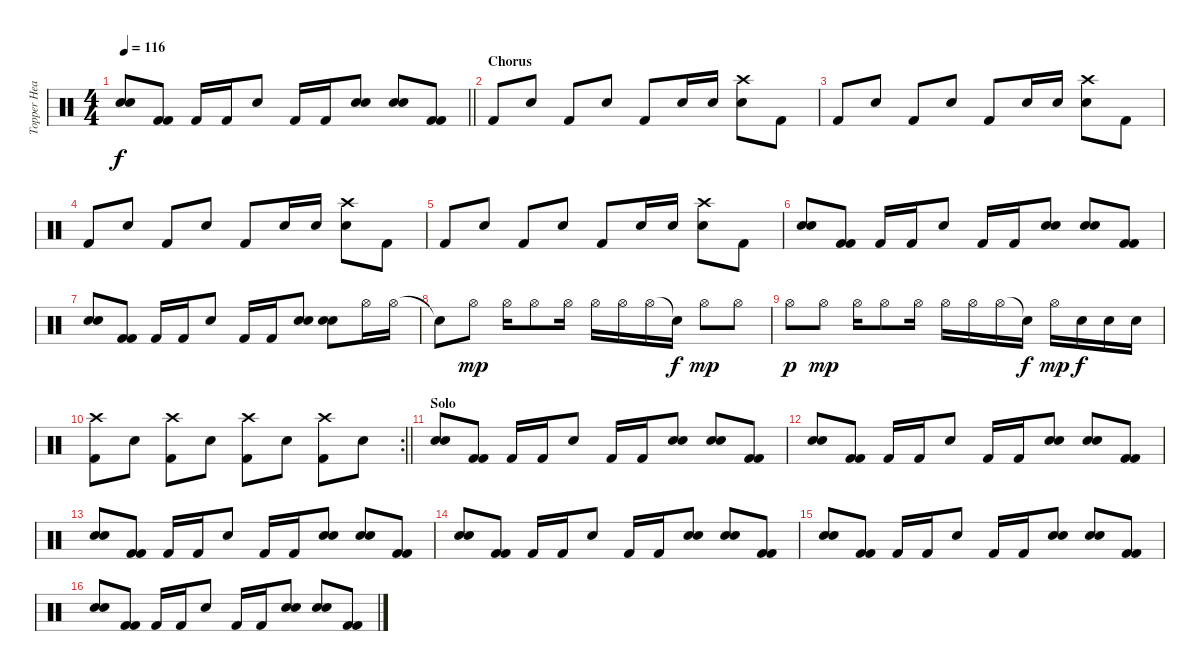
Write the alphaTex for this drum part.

\track ("Topper Headon - Percussion" "Topper Hea") {instrument percussion}
\staff {score}
\articulation defaults
\ts (4 4)
\tempo 116
\clef neutral
\barLineRight lightlight
\ks c
("Snare (hit) 2" "Snare (hit) 2").8{dy f} ("Kick (hit) 2" "Kick (hit) 2").8 "Kick (hit) 2".16 "Kick (hit) 2".16 "Snare (hit) 2".8 "Kick (hit) 2".16 "Kick (hit) 2".16 ("Snare (hit) 2" "Snare (hit) 2").8 ("Snare (hit) 2" "Snare (hit) 2").8 ("Kick (hit) 2" "Kick (hit) 2").8 |
\section ("" "Chorus")
"Kick (hit) 2".8 "Snare (hit) 2".8 "Kick (hit) 2".8 "Snare (hit) 2".8 "Kick (hit) 2".8 "Snare (hit) 2".16 "Snare (hit) 2".16 ("Crash high (hit)" "Snare (hit) 2").8 "Kick (hit) 2".8 |
"Kick (hit) 2".8 "Snare (hit) 2".8 "Kick (hit) 2".8 "Snare (hit) 2".8 "Kick (hit) 2".8 "Snare (hit) 2".16 "Snare (hit) 2".16 ("Crash high (hit)" "Snare (hit) 2").8 "Kick (hit) 2".8 |
"Kick (hit) 2".8 "Snare (hit) 2".8 "Kick (hit) 2".8 "Snare (hit) 2".8 "Kick (hit) 2".8 "Snare (hit) 2".16 "Snare (hit) 2".16 ("Crash high (hit)" "Snare (hit) 2").8 "Kick (hit) 2".8 |
"Kick (hit) 2".8 "Snare (hit) 2".8 "Kick (hit) 2".8 "Snare (hit) 2".8 "Kick (hit) 2".8 "Snare (hit) 2".16 "Snare (hit) 2".16 ("Crash high (hit)" "Snare (hit) 2").8 "Kick (hit) 2".8 |
("Snare (hit) 2" "Snare (hit) 2").8 ("Kick (hit) 2" "Kick (hit) 2").8 "Kick (hit) 2".16 "Kick (hit) 2".16 "Snare (hit) 2".8 "Kick (hit) 2".16 "Kick (hit) 2".16 ("Snare (hit) 2" "Snare (hit) 2").8 ("Snare (hit) 2" "Snare (hit) 2").8 ("Kick (hit) 2" "Kick (hit) 2").8 |
("Snare (hit) 2" "Snare (hit) 2").8 ("Kick (hit) 2" "Kick (hit) 2").8 "Kick (hit) 2".16 "Kick (hit) 2".16 "Snare (hit) 2".8 "Kick (hit) 2".16 "Kick (hit) 2".16 ("Snare (hit) 2" "Snare (hit) 2").8 ("Snare (hit) 2" "Snare (hit) 2").8 "Hi-Hat (open)".16 "Hi-Hat (open)".16 |
"Snare (hit)"{t}.8 "Hi-Hat (open)".8{dy mp} "Hi-Hat (open)".16 "Hi-Hat (open)".8 "Hi-Hat (open)".16 "Hi-Hat (open)".16 "Hi-Hat (open)".16 "Hi-Hat (open)".16 "Snare (hit)"{t}.16{dy f} "Hi-Hat (open)".8{dy mp} "Hi-Hat (open)".8 |
"Hi-Hat (open)".8{dy p} "Hi-Hat (open)".8{dy mp} "Hi-Hat (open)".16 "Hi-Hat (open)".8 "Hi-Hat (open)".16 "Hi-Hat (open)".16 "Hi-Hat (open)".16 "Hi-Hat (open)".16 "Snare (hit)"{t}.16{dy f} "Hi-Hat (open)".16{dy mp} "Snare (hit) 2".16{dy f} "Snare (hit) 2".16 "Snare (hit) 2".16 |
\rc 2
\barLineRight lightlight
("Crash high (hit)" "Kick (hit) 2").8 "Snare (hit) 2".8 ("Crash high (hit)" "Kick (hit) 2").8 "Snare (hit) 2".8 ("Crash high (hit)" "Kick (hit) 2").8 "Snare (hit) 2".8 ("Crash high (hit)" "Kick (hit) 2").8 "Snare (hit) 2".8 |
\section ("" "Solo")
("Snare (hit) 2" "Snare (hit) 2").8 ("Kick (hit) 2" "Kick (hit) 2").8 "Kick (hit) 2".16 "Kick (hit) 2".16 "Snare (hit) 2".8 "Kick (hit) 2".16 "Kick (hit) 2".16 ("Snare (hit) 2" "Snare (hit) 2").8 ("Snare (hit) 2" "Snare (hit) 2").8 ("Kick (hit) 2" "Kick (hit) 2").8 |
("Snare (hit) 2" "Snare (hit) 2").8 ("Kick (hit) 2" "Kick (hit) 2").8 "Kick (hit) 2".16 "Kick (hit) 2".16 "Snare (hit) 2".8 "Kick (hit) 2".16 "Kick (hit) 2".16 ("Snare (hit) 2" "Snare (hit) 2").8 ("Snare (hit) 2" "Snare (hit) 2").8 ("Kick (hit) 2" "Kick (hit) 2").8 |
("Snare (hit) 2" "Snare (hit) 2").8 ("Kick (hit) 2" "Kick (hit) 2").8 "Kick (hit) 2".16 "Kick (hit) 2".16 "Snare (hit) 2".8 "Kick (hit) 2".16 "Kick (hit) 2".16 ("Snare (hit) 2" "Snare (hit) 2").8 ("Snare (hit) 2" "Snare (hit) 2").8 ("Kick (hit) 2" "Kick (hit) 2").8 |
("Snare (hit) 2" "Snare (hit) 2").8 ("Kick (hit) 2" "Kick (hit) 2").8 "Kick (hit) 2".16 "Kick (hit) 2".16 "Snare (hit) 2".8 "Kick (hit) 2".16 "Kick (hit) 2".16 ("Snare (hit) 2" "Snare (hit) 2").8 ("Snare (hit) 2" "Snare (hit) 2").8 ("Kick (hit) 2" "Kick (hit) 2").8 |
("Snare (hit) 2" "Snare (hit) 2").8 ("Kick (hit) 2" "Kick (hit) 2").8 "Kick (hit) 2".16 "Kick (hit) 2".16 "Snare (hit) 2".8 "Kick (hit) 2".16 "Kick (hit) 2".16 ("Snare (hit) 2" "Snare (hit) 2").8 ("Snare (hit) 2" "Snare (hit) 2").8 ("Kick (hit) 2" "Kick (hit) 2").8 |
("Snare (hit) 2" "Snare (hit) 2").8 ("Kick (hit) 2" "Kick (hit) 2").8 "Kick (hit) 2".16 "Kick (hit) 2".16 "Snare (hit) 2".8 "Kick (hit) 2".16 "Kick (hit) 2".16 ("Snare (hit) 2" "Snare (hit) 2").8 ("Snare (hit) 2" "Snare (hit) 2").8 ("Kick (hit) 2" "Kick (hit) 2").8
